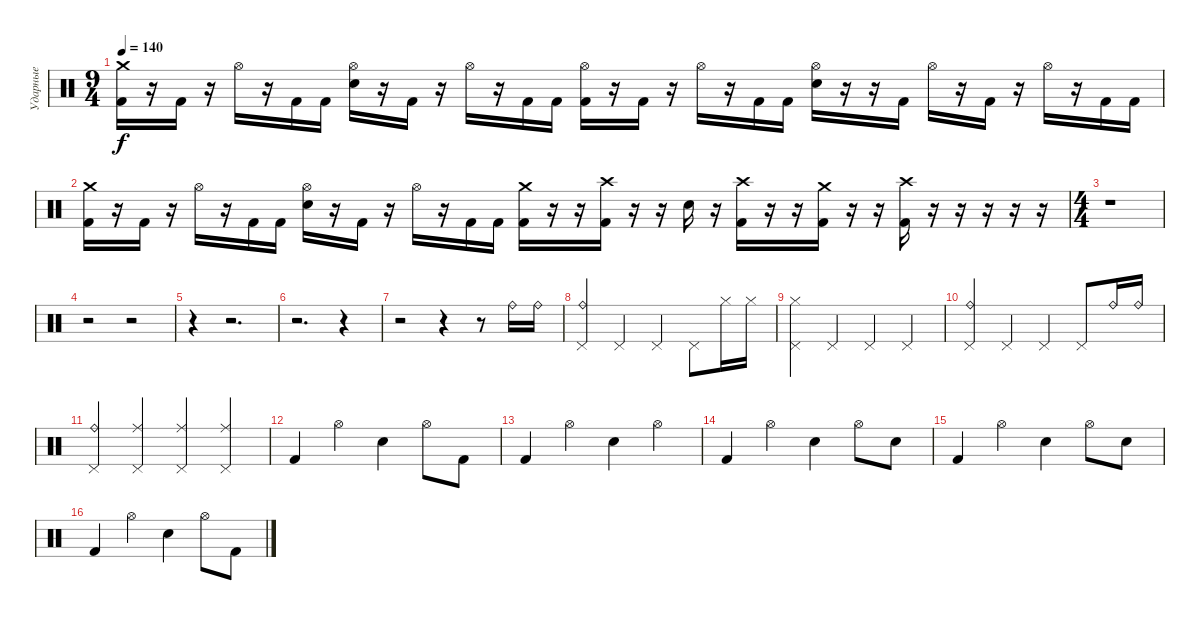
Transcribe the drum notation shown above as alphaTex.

\track ("Ударные" "Ударные") {instrument percussion}
\staff {score}
\articulation defaults
\ts (9 4)
\tempo 140
\clef neutral
\ks c
("Kick (hit) 2" "Crash medium (hit)").16{dy f} r.16 "Kick (hit) 2".16 r.16 "Hi-Hat (open)".16 r.16 "Kick (hit) 2".16 "Kick (hit) 2".16 ("Electric Snare (hit)" "Hi-Hat (open)").16 r.16 "Kick (hit) 2".16 r.16 "Hi-Hat (open)".16 r.16 "Kick (hit) 2".16 "Kick (hit) 2".16 ("Kick (hit) 2" "Hi-Hat (open)").16 r.16 "Kick (hit) 2".16 r.16 "Hi-Hat (open)".16 r.16 "Kick (hit) 2".16 "Kick (hit) 2".16 ("Electric Snare (hit)" "Hi-Hat (open)").16 r.16 r.16 "Kick (hit) 2".16 "Hi-Hat (open)".16 r.16 "Kick (hit) 2".16 r.16 "Hi-Hat (open)".16 r.16 "Kick (hit) 2".16 "Kick (hit) 2".16 |
("Kick (hit) 2" "Crash medium (hit)").16 r.16 "Kick (hit) 2".16 r.16 "Hi-Hat (open)".16 r.16 "Kick (hit) 2".16 "Kick (hit) 2".16 ("Electric Snare (hit)" "Hi-Hat (open)").16 r.16 "Kick (hit) 2".16 r.16 "Hi-Hat (open)".16 r.16 "Kick (hit) 2".16 "Kick (hit) 2".16 ("Kick (hit) 2" "Crash medium (hit)").16 r.16 r.16 ("Kick (hit) 2" "Crash high (hit)").16 r.16 r.16 "Electric Snare (hit)".16 r.16 ("Kick (hit) 2" "Crash high (hit)").16 r.16 r.16 ("Kick (hit) 2" "Crash medium (hit)").16 r.16 r.16 ("Kick (hit) 2" "Crash high (hit)").16 r.16 r.16 r.16 r.16 r.16 |
\ts (4 4)
r.1 |
r.2 r.2 |
r.4 r.2{d} |
r.2{d} r.4 |
r.2 r.4 r.8 "Ride (bell)".16 "Ride (bell)".16 |
("Ride (bell)" "Pedal Hi-Hat (hit)").4 "Pedal Hi-Hat (hit)".4 "Pedal Hi-Hat (hit)".4 "Pedal Hi-Hat (hit)".8 "Hi-Hat (closed)".16 "Hi-Hat (closed)".16 |
("Hi-Hat (closed)" "Pedal Hi-Hat (hit)").4 "Pedal Hi-Hat (hit)".4 "Pedal Hi-Hat (hit)".4 "Pedal Hi-Hat (hit)".4 |
("Ride (bell)" "Pedal Hi-Hat (hit)").4 "Pedal Hi-Hat (hit)".4 "Pedal Hi-Hat (hit)".4 "Pedal Hi-Hat (hit)".8 "Ride (bell)".16 "Ride (bell)".16 |
("Ride (bell)" "Pedal Hi-Hat (hit)").4 ("Ride (middle)" "Pedal Hi-Hat (hit)").4 ("Ride (middle)" "Pedal Hi-Hat (hit)").4 ("Ride (middle)" "Pedal Hi-Hat (hit)").4 |
"Kick (hit) 2".4 "Hi-Hat (open)".4 "Electric Snare (hit)".4 "Hi-Hat (open)".8 "Kick (hit) 2".8 |
"Kick (hit) 2".4 "Hi-Hat (open)".4 "Electric Snare (hit)".4 "Hi-Hat (open)".4 |
"Kick (hit) 2".4 "Hi-Hat (open)".4 "Electric Snare (hit)".4 "Hi-Hat (open)".8 "Electric Snare (hit)".8 |
"Kick (hit) 2".4 "Hi-Hat (open)".4 "Electric Snare (hit)".4 "Hi-Hat (open)".8 "Electric Snare (hit)".8 |
"Kick (hit) 2".4 "Hi-Hat (open)".4 "Electric Snare (hit)".4 "Hi-Hat (open)".8 "Kick (hit) 2".8
